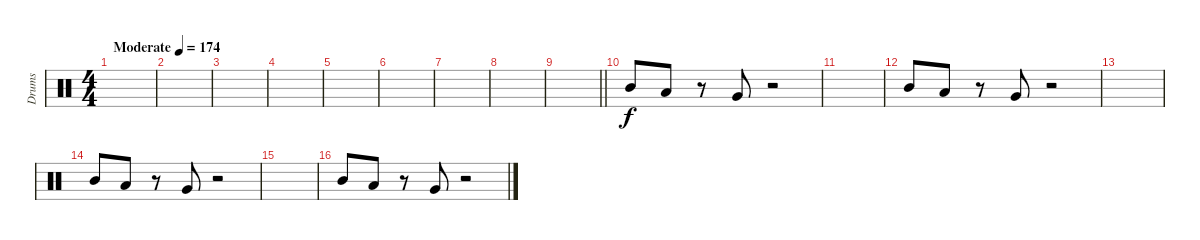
\track ("Drums" "Drums") {instrument percussion}
\staff {score}
\articulation defaults
\ts (4 4)
\tempo (174 "Moderate")
\clef neutral
\ks c
|
|
|
|
|
|
|
|
\barLineRight lightlight
|
"Mid Tom (hit)".8 "Low Tom (hit)".8 r.8 "Very Low Tom (hit)".8 r.2 |
|
"Mid Tom (hit)".8 "Low Tom (hit)".8 r.8 "Very Low Tom (hit)".8 r.2 |
|
"Mid Tom (hit)".8 "Low Tom (hit)".8 r.8 "Very Low Tom (hit)".8 r.2 |
|
"Mid Tom (hit)".8 "Low Tom (hit)".8 r.8 "Very Low Tom (hit)".8 r.2
